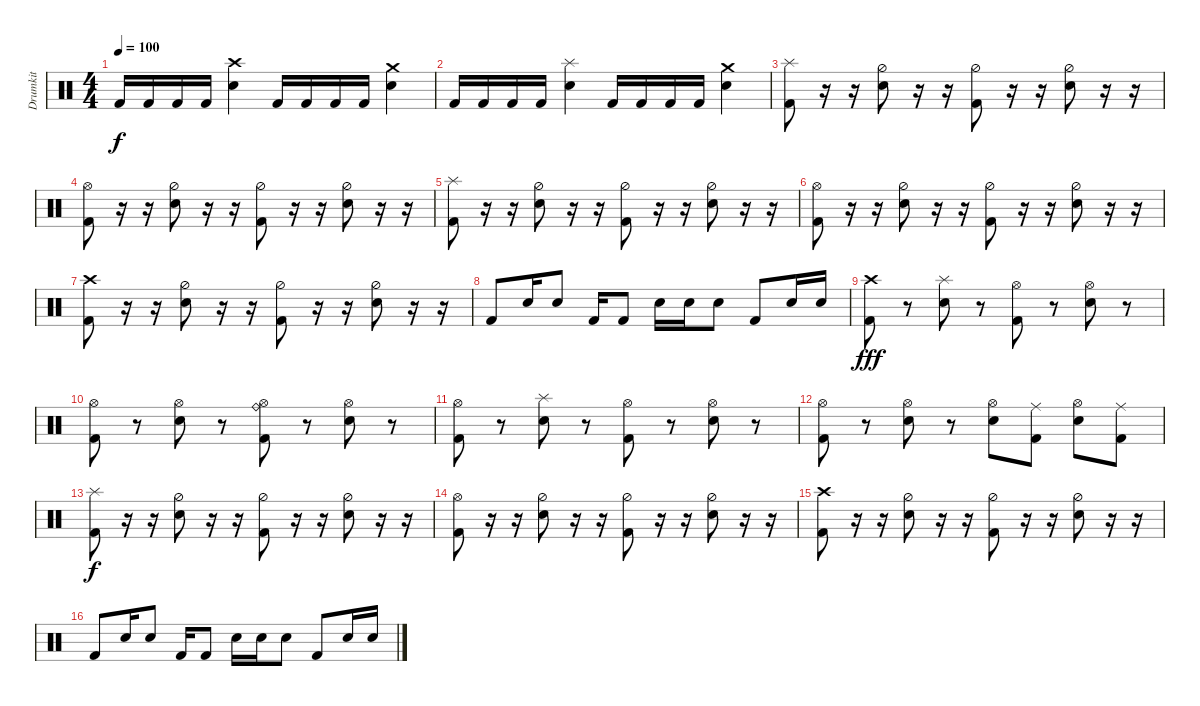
\track ("Drumkit" "Drumkit") {instrument percussion}
\staff {score}
\articulation defaults
\ts (4 4)
\tempo 100
\clef neutral
\ks c "Kick (hit) 2".16{dy f} "Kick (hit) 2".16 "Kick (hit) 2".16 "Kick (hit) 2".16
("Snare (hit) 2" "Crash high (hit)").4 "Kick (hit) 2".16 "Kick (hit) 2".16 "Kick (hit) 2".16 "Kick (hit) 2".16 ("Snare (hit) 2" "Crash medium (hit)").4 |
"Kick (hit) 2".16 "Kick (hit) 2".16 "Kick (hit) 2".16 "Kick (hit) 2".16 ("Snare (hit) 2" "Splash (hit)").4 "Kick (hit) 2".16 "Kick (hit) 2".16 "Kick (hit) 2".16 "Kick (hit) 2".16 ("Snare (hit) 2" "Crash medium (hit)").4 |
("Kick (hit) 2" "Splash (hit)").8 r.16 r.16 ("Hi-Hat (half)" "Snare (hit) 2").8 r.16 r.16 ("Kick (hit) 2" "Hi-Hat (half)").8 r.16 r.16 ("Snare (hit) 2" "Hi-Hat (half)").8 r.16 r.16 |
("Kick (hit) 2" "Hi-Hat (open)").8 r.16 r.16 ("Hi-Hat (half)" "Snare (hit) 2").8 r.16 r.16 ("Kick (hit) 2" "Hi-Hat (half)").8 r.16 r.16 ("Snare (hit) 2" "Hi-Hat (half)").8 r.16 r.16 |
("Kick (hit) 2" "Splash (hit)").8 r.16 r.16 ("Hi-Hat (half)" "Snare (hit) 2").8 r.16 r.16 ("Kick (hit) 2" "Hi-Hat (half)").8 r.16 r.16 ("Snare (hit) 2" "Hi-Hat (half)").8 r.16 r.16 |
("Kick (hit) 2" "Hi-Hat (open)").8 r.16 r.16 ("Hi-Hat (half)" "Snare (hit) 2").8 r.16 r.16 ("Kick (hit) 2" "Hi-Hat (half)").8 r.16 r.16 ("Snare (hit) 2" "Hi-Hat (half)").8 r.16 r.16 |
("Kick (hit) 2" "Crash high (hit)").8 r.16 r.16 ("Hi-Hat (half)" "Snare (hit) 2").8 r.16 r.16 ("Kick (hit) 2" "Hi-Hat (half)").8 r.16 r.16 ("Snare (hit) 2" "Hi-Hat (half)").8 r.16 r.16 |
"Kick (hit) 2".8 "Snare (hit) 2".16 "Snare (hit) 2".8 "Kick (hit) 2".16 "Kick (hit) 2".8 "Snare (hit) 2".16 "Snare (hit) 2".16 "Snare (hit) 2".8 "Kick (hit) 2".8 "Snare (hit) 2".16 "Snare (hit) 2".16 |
("Kick (hit) 2" "Crash high (hit)").8{dy fff} r.8 ("Snare (hit) 2" "Splash (hit)").8 r.8 ("Kick (hit) 2" "Hi-Hat (open)").8 r.8 ("Snare (hit) 2" "Hi-Hat (open)").8 r.8 |
("Kick (hit) 2" "Hi-Hat (open)").8 r.8 ("Snare (hit) 2" "Hi-Hat (open)").8 r.8 ("Kick (hit) 2" "Hi-Hat (open)" "Ride (bell)").8 r.8 ("Hi-Hat (open)" "Snare (hit) 2").8 r.8 |
("Kick (hit) 2" "Hi-Hat (open)").8 r.8 ("Snare (hit) 2" "Splash (hit)").8 r.8 ("Kick (hit) 2" "Hi-Hat (open)").8 r.8 ("Snare (hit) 2" "Hi-Hat (open)").8 r.8 |
("Kick (hit) 2" "Hi-Hat (open)").8 r.8 ("Snare (hit) 2" "Hi-Hat (open)").8 r.8 ("Snare (hit) 2" "Hi-Hat (open)").8 ("Kick (hit) 2" "Ride (middle)").8 ("Snare (hit) 2" "Hi-Hat (open)").8 ("Kick (hit) 2" "Ride (middle)").8 |
("Kick (hit) 2" "Splash (hit)").8{dy f} r.16 r.16 ("Hi-Hat (half)" "Snare (hit) 2").8 r.16 r.16 ("Kick (hit) 2" "Hi-Hat (half)").8 r.16 r.16 ("Snare (hit) 2" "Hi-Hat (half)").8 r.16 r.16 |
("Kick (hit) 2" "Hi-Hat (open)").8 r.16 r.16 ("Hi-Hat (half)" "Snare (hit) 2").8 r.16 r.16 ("Kick (hit) 2" "Hi-Hat (half)").8 r.16 r.16 ("Snare (hit) 2" "Hi-Hat (half)").8 r.16 r.16 |
("Kick (hit) 2" "Crash high (hit)").8 r.16 r.16 ("Hi-Hat (half)" "Snare (hit) 2").8 r.16 r.16 ("Kick (hit) 2" "Hi-Hat (half)").8 r.16 r.16 ("Snare (hit) 2" "Hi-Hat (half)").8 r.16 r.16 |
"Kick (hit) 2".8 "Snare (hit) 2".16 "Snare (hit) 2".8 "Kick (hit) 2".16 "Kick (hit) 2".8 "Snare (hit) 2".16 "Snare (hit) 2".16 "Snare (hit) 2".8 "Kick (hit) 2".8 "Snare (hit) 2".16 "Snare (hit) 2".16
